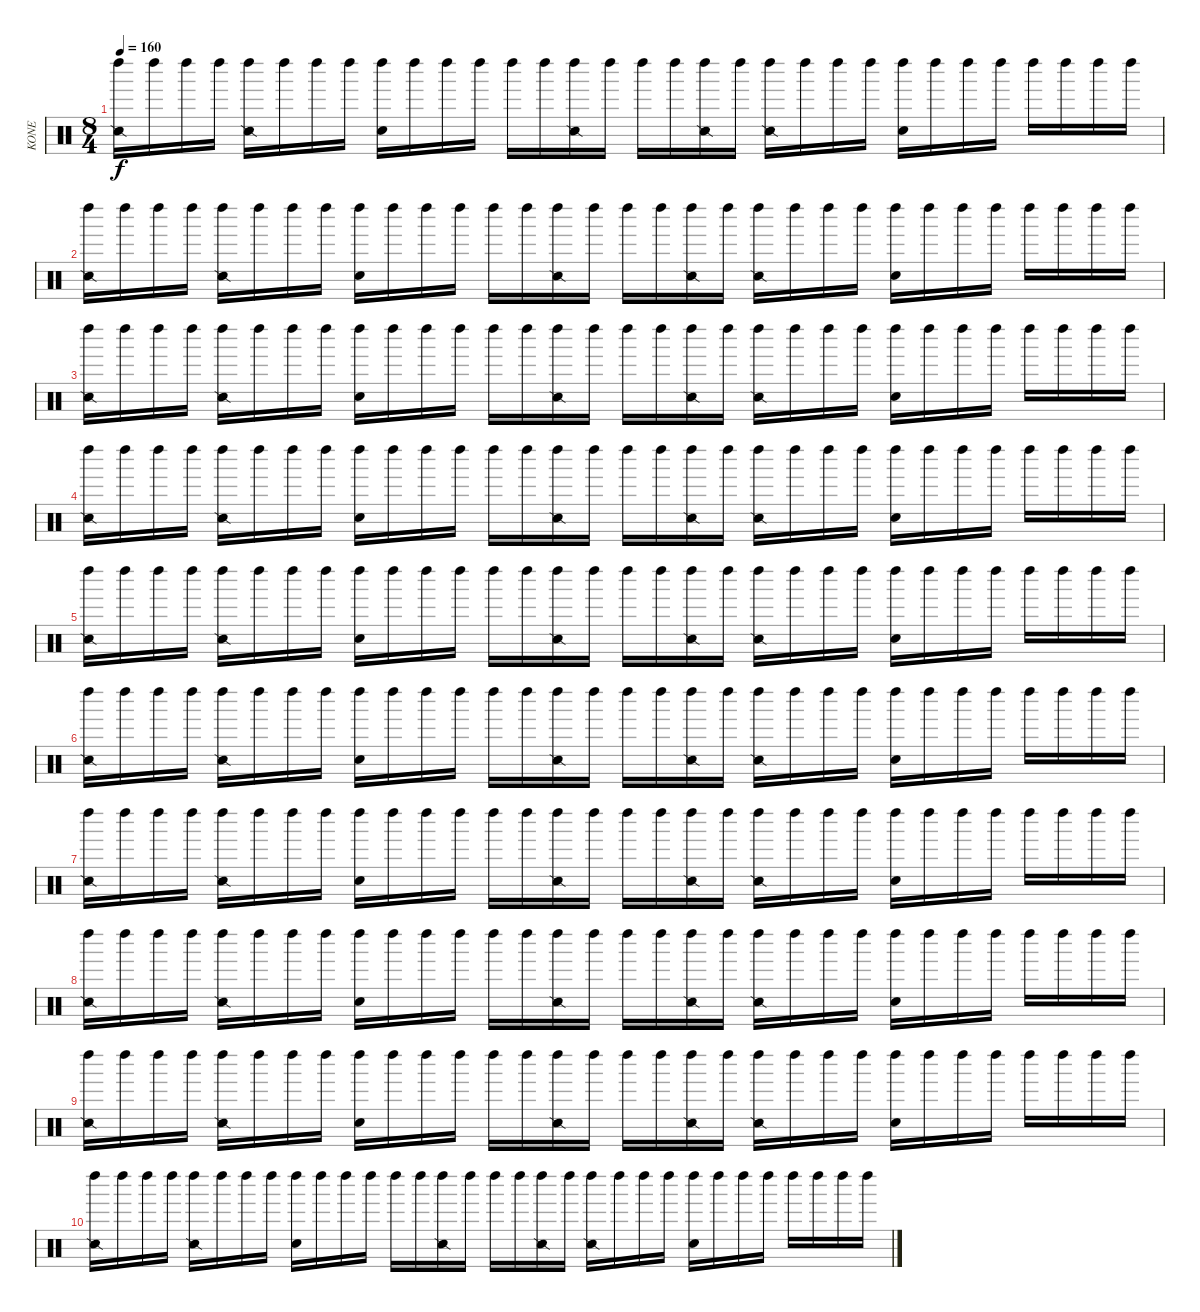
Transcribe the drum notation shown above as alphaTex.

\track ("KONE" "KONE") {instrument percussion}
\staff {score}
\articulation defaults
\ts (8 4)
\tempo 160
\clef neutral
\ks c
("Left Maraca (hit)" "Snare (side stick) 2").16{dy f} "Left Maraca (hit)".16 "Left Maraca (hit)".16 "Left Maraca (hit)".16 ("Left Maraca (hit)" "Snare (side stick) 2").16 "Left Maraca (hit)".16 "Left Maraca (hit)".16 "Left Maraca (hit)".16 ("Left Maraca (hit)" "Hand Clap (hit)").16 "Left Maraca (hit)".16 "Left Maraca (hit)".16 "Left Maraca (hit)".16 "Left Maraca (hit)".16 "Left Maraca (hit)".16 ("Left Maraca (hit)" "Snare (side stick) 2").16 "Left Maraca (hit)".16 "Left Maraca (hit)".16 "Left Maraca (hit)".16 ("Left Maraca (hit)" "Snare (side stick) 2").16 "Left Maraca (hit)".16 ("Left Maraca (hit)" "Snare (side stick) 2").16 "Left Maraca (hit)".16 "Left Maraca (hit)".16 "Left Maraca (hit)".16 ("Left Maraca (hit)" "Hand Clap (hit)").16 "Left Maraca (hit)".16 "Left Maraca (hit)".16 "Left Maraca (hit)".16 "Left Maraca (hit)".16 "Left Maraca (hit)".16 "Left Maraca (hit)".16 "Left Maraca (hit)".16 |
("Left Maraca (hit)" "Snare (side stick) 2").16 "Left Maraca (hit)".16 "Left Maraca (hit)".16 "Left Maraca (hit)".16 ("Left Maraca (hit)" "Snare (side stick) 2").16 "Left Maraca (hit)".16 "Left Maraca (hit)".16 "Left Maraca (hit)".16 ("Left Maraca (hit)" "Hand Clap (hit)").16 "Left Maraca (hit)".16 "Left Maraca (hit)".16 "Left Maraca (hit)".16 "Left Maraca (hit)".16 "Left Maraca (hit)".16 ("Left Maraca (hit)" "Snare (side stick) 2").16 "Left Maraca (hit)".16 "Left Maraca (hit)".16 "Left Maraca (hit)".16 ("Left Maraca (hit)" "Snare (side stick) 2").16 "Left Maraca (hit)".16 ("Left Maraca (hit)" "Snare (side stick) 2").16 "Left Maraca (hit)".16 "Left Maraca (hit)".16 "Left Maraca (hit)".16 ("Left Maraca (hit)" "Hand Clap (hit)").16 "Left Maraca (hit)".16 "Left Maraca (hit)".16 "Left Maraca (hit)".16 "Left Maraca (hit)".16 "Left Maraca (hit)".16 "Left Maraca (hit)".16 "Left Maraca (hit)".16 |
("Left Maraca (hit)" "Snare (side stick) 2").16 "Left Maraca (hit)".16 "Left Maraca (hit)".16 "Left Maraca (hit)".16 ("Left Maraca (hit)" "Snare (side stick) 2").16 "Left Maraca (hit)".16 "Left Maraca (hit)".16 "Left Maraca (hit)".16 ("Left Maraca (hit)" "Hand Clap (hit)").16 "Left Maraca (hit)".16 "Left Maraca (hit)".16 "Left Maraca (hit)".16 "Left Maraca (hit)".16 "Left Maraca (hit)".16 ("Left Maraca (hit)" "Snare (side stick) 2").16 "Left Maraca (hit)".16 "Left Maraca (hit)".16 "Left Maraca (hit)".16 ("Left Maraca (hit)" "Snare (side stick) 2").16 "Left Maraca (hit)".16 ("Left Maraca (hit)" "Snare (side stick) 2").16 "Left Maraca (hit)".16 "Left Maraca (hit)".16 "Left Maraca (hit)".16 ("Left Maraca (hit)" "Hand Clap (hit)").16 "Left Maraca (hit)".16 "Left Maraca (hit)".16 "Left Maraca (hit)".16 "Left Maraca (hit)".16 "Left Maraca (hit)".16 "Left Maraca (hit)".16 "Left Maraca (hit)".16 |
("Left Maraca (hit)" "Snare (side stick) 2").16 "Left Maraca (hit)".16 "Left Maraca (hit)".16 "Left Maraca (hit)".16 ("Left Maraca (hit)" "Snare (side stick) 2").16 "Left Maraca (hit)".16 "Left Maraca (hit)".16 "Left Maraca (hit)".16 ("Left Maraca (hit)" "Hand Clap (hit)").16 "Left Maraca (hit)".16 "Left Maraca (hit)".16 "Left Maraca (hit)".16 "Left Maraca (hit)".16 "Left Maraca (hit)".16 ("Left Maraca (hit)" "Snare (side stick) 2").16 "Left Maraca (hit)".16 "Left Maraca (hit)".16 "Left Maraca (hit)".16 ("Left Maraca (hit)" "Snare (side stick) 2").16 "Left Maraca (hit)".16 ("Left Maraca (hit)" "Snare (side stick) 2").16 "Left Maraca (hit)".16 "Left Maraca (hit)".16 "Left Maraca (hit)".16 ("Left Maraca (hit)" "Hand Clap (hit)").16 "Left Maraca (hit)".16 "Left Maraca (hit)".16 "Left Maraca (hit)".16 "Left Maraca (hit)".16 "Left Maraca (hit)".16 "Left Maraca (hit)".16 "Left Maraca (hit)".16 |
("Left Maraca (hit)" "Snare (side stick) 2").16 "Left Maraca (hit)".16 "Left Maraca (hit)".16 "Left Maraca (hit)".16 ("Left Maraca (hit)" "Snare (side stick) 2").16 "Left Maraca (hit)".16 "Left Maraca (hit)".16 "Left Maraca (hit)".16 ("Left Maraca (hit)" "Hand Clap (hit)").16 "Left Maraca (hit)".16 "Left Maraca (hit)".16 "Left Maraca (hit)".16 "Left Maraca (hit)".16 "Left Maraca (hit)".16 ("Left Maraca (hit)" "Snare (side stick) 2").16 "Left Maraca (hit)".16 "Left Maraca (hit)".16 "Left Maraca (hit)".16 ("Left Maraca (hit)" "Snare (side stick) 2").16 "Left Maraca (hit)".16 ("Left Maraca (hit)" "Snare (side stick) 2").16 "Left Maraca (hit)".16 "Left Maraca (hit)".16 "Left Maraca (hit)".16 ("Left Maraca (hit)" "Hand Clap (hit)").16 "Left Maraca (hit)".16 "Left Maraca (hit)".16 "Left Maraca (hit)".16 "Left Maraca (hit)".16 "Left Maraca (hit)".16 "Left Maraca (hit)".16 "Left Maraca (hit)".16 |
("Left Maraca (hit)" "Snare (side stick) 2").16 "Left Maraca (hit)".16 "Left Maraca (hit)".16 "Left Maraca (hit)".16 ("Left Maraca (hit)" "Snare (side stick) 2").16 "Left Maraca (hit)".16 "Left Maraca (hit)".16 "Left Maraca (hit)".16 ("Left Maraca (hit)" "Hand Clap (hit)").16 "Left Maraca (hit)".16 "Left Maraca (hit)".16 "Left Maraca (hit)".16 "Left Maraca (hit)".16 "Left Maraca (hit)".16 ("Left Maraca (hit)" "Snare (side stick) 2").16 "Left Maraca (hit)".16 "Left Maraca (hit)".16 "Left Maraca (hit)".16 ("Left Maraca (hit)" "Snare (side stick) 2").16 "Left Maraca (hit)".16 ("Left Maraca (hit)" "Snare (side stick) 2").16 "Left Maraca (hit)".16 "Left Maraca (hit)".16 "Left Maraca (hit)".16 ("Left Maraca (hit)" "Hand Clap (hit)").16 "Left Maraca (hit)".16 "Left Maraca (hit)".16 "Left Maraca (hit)".16 "Left Maraca (hit)".16 "Left Maraca (hit)".16 "Left Maraca (hit)".16 "Left Maraca (hit)".16 |
("Left Maraca (hit)" "Snare (side stick) 2").16 "Left Maraca (hit)".16 "Left Maraca (hit)".16 "Left Maraca (hit)".16 ("Left Maraca (hit)" "Snare (side stick) 2").16 "Left Maraca (hit)".16 "Left Maraca (hit)".16 "Left Maraca (hit)".16 ("Left Maraca (hit)" "Hand Clap (hit)").16 "Left Maraca (hit)".16 "Left Maraca (hit)".16 "Left Maraca (hit)".16 "Left Maraca (hit)".16 "Left Maraca (hit)".16 ("Left Maraca (hit)" "Snare (side stick) 2").16 "Left Maraca (hit)".16 "Left Maraca (hit)".16 "Left Maraca (hit)".16 ("Left Maraca (hit)" "Snare (side stick) 2").16 "Left Maraca (hit)".16 ("Left Maraca (hit)" "Snare (side stick) 2").16 "Left Maraca (hit)".16 "Left Maraca (hit)".16 "Left Maraca (hit)".16 ("Left Maraca (hit)" "Hand Clap (hit)").16 "Left Maraca (hit)".16 "Left Maraca (hit)".16 "Left Maraca (hit)".16 "Left Maraca (hit)".16 "Left Maraca (hit)".16 "Left Maraca (hit)".16 "Left Maraca (hit)".16 |
("Left Maraca (hit)" "Snare (side stick) 2").16 "Left Maraca (hit)".16 "Left Maraca (hit)".16 "Left Maraca (hit)".16 ("Left Maraca (hit)" "Snare (side stick) 2").16 "Left Maraca (hit)".16 "Left Maraca (hit)".16 "Left Maraca (hit)".16 ("Left Maraca (hit)" "Hand Clap (hit)").16 "Left Maraca (hit)".16 "Left Maraca (hit)".16 "Left Maraca (hit)".16 "Left Maraca (hit)".16 "Left Maraca (hit)".16 ("Left Maraca (hit)" "Snare (side stick) 2").16 "Left Maraca (hit)".16 "Left Maraca (hit)".16 "Left Maraca (hit)".16 ("Left Maraca (hit)" "Snare (side stick) 2").16 "Left Maraca (hit)".16 ("Left Maraca (hit)" "Snare (side stick) 2").16 "Left Maraca (hit)".16 "Left Maraca (hit)".16 "Left Maraca (hit)".16 ("Left Maraca (hit)" "Hand Clap (hit)").16 "Left Maraca (hit)".16 "Left Maraca (hit)".16 "Left Maraca (hit)".16 "Left Maraca (hit)".16 "Left Maraca (hit)".16 "Left Maraca (hit)".16 "Left Maraca (hit)".16 |
("Left Maraca (hit)" "Snare (side stick) 2").16 "Left Maraca (hit)".16 "Left Maraca (hit)".16 "Left Maraca (hit)".16 ("Left Maraca (hit)" "Snare (side stick) 2").16 "Left Maraca (hit)".16 "Left Maraca (hit)".16 "Left Maraca (hit)".16 ("Left Maraca (hit)" "Hand Clap (hit)").16 "Left Maraca (hit)".16 "Left Maraca (hit)".16 "Left Maraca (hit)".16 "Left Maraca (hit)".16 "Left Maraca (hit)".16 ("Left Maraca (hit)" "Snare (side stick) 2").16 "Left Maraca (hit)".16 "Left Maraca (hit)".16 "Left Maraca (hit)".16 ("Left Maraca (hit)" "Snare (side stick) 2").16 "Left Maraca (hit)".16 ("Left Maraca (hit)" "Snare (side stick) 2").16 "Left Maraca (hit)".16 "Left Maraca (hit)".16 "Left Maraca (hit)".16 ("Left Maraca (hit)" "Hand Clap (hit)").16 "Left Maraca (hit)".16 "Left Maraca (hit)".16 "Left Maraca (hit)".16 "Left Maraca (hit)".16 "Left Maraca (hit)".16 "Left Maraca (hit)".16 "Left Maraca (hit)".16 |
("Left Maraca (hit)" "Snare (side stick) 2").16 "Left Maraca (hit)".16 "Left Maraca (hit)".16 "Left Maraca (hit)".16 ("Left Maraca (hit)" "Snare (side stick) 2").16 "Left Maraca (hit)".16 "Left Maraca (hit)".16 "Left Maraca (hit)".16 ("Left Maraca (hit)" "Hand Clap (hit)").16 "Left Maraca (hit)".16 "Left Maraca (hit)".16 "Left Maraca (hit)".16 "Left Maraca (hit)".16 "Left Maraca (hit)".16 ("Left Maraca (hit)" "Snare (side stick) 2").16 "Left Maraca (hit)".16 "Left Maraca (hit)".16 "Left Maraca (hit)".16 ("Left Maraca (hit)" "Snare (side stick) 2").16 "Left Maraca (hit)".16 ("Left Maraca (hit)" "Snare (side stick) 2").16 "Left Maraca (hit)".16 "Left Maraca (hit)".16 "Left Maraca (hit)".16 ("Left Maraca (hit)" "Hand Clap (hit)").16 "Left Maraca (hit)".16 "Left Maraca (hit)".16 "Left Maraca (hit)".16 "Left Maraca (hit)".16 "Left Maraca (hit)".16 "Left Maraca (hit)".16 "Left Maraca (hit)".16
